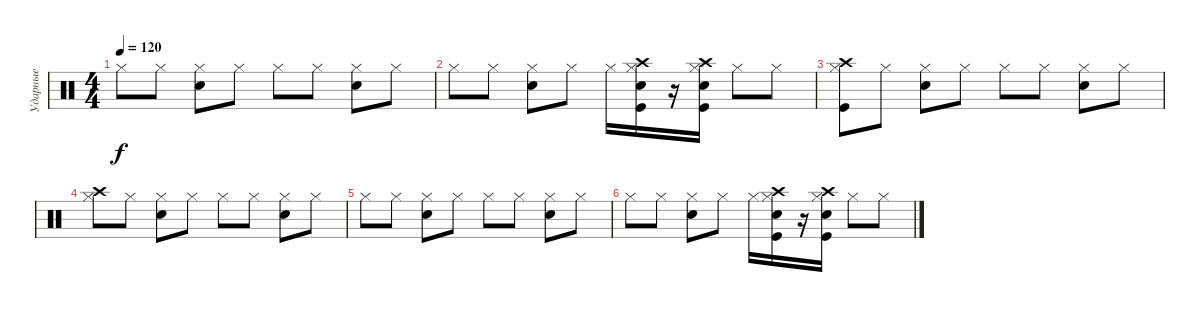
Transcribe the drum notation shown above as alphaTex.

\track ("Ударные" "Ударные") {instrument percussion}
\staff {score}
\articulation defaults
\ts (4 4)
\tempo 120
\clef neutral
\ks c "Hi-Hat (closed)".8{dy f} "Hi-Hat (closed)".8
("Hi-Hat (closed)" "Electric Snare (hit)").8 "Hi-Hat (closed)".8 "Hi-Hat (closed)".8 "Hi-Hat (closed)".8 ("Hi-Hat (closed)" "Electric Snare (hit)").8 "Hi-Hat (closed)".8 |
"Hi-Hat (closed)".8 "Hi-Hat (closed)".8 ("Hi-Hat (closed)" "Electric Snare (hit)").8 "Hi-Hat (closed)".8 "Hi-Hat (closed)".16 ("Hi-Hat (closed)" "Electric Snare (hit)" "Crash high (hit)" "Kick (hit)").16 r.16 ("Hi-Hat (closed)" "Electric Snare (hit)" "Crash high (hit)" "Kick (hit)").16 "Hi-Hat (closed)".8 "Hi-Hat (closed)".8 |
("Hi-Hat (closed)" "Crash high (hit)" "Kick (hit)").8 "Hi-Hat (closed)".8 ("Hi-Hat (closed)" "Electric Snare (hit)").8 "Hi-Hat (closed)".8 "Hi-Hat (closed)".8 "Hi-Hat (closed)".8 ("Hi-Hat (closed)" "Electric Snare (hit)").8 "Hi-Hat (closed)".8 |
("Hi-Hat (closed)" "Crash high (hit)").8 "Hi-Hat (closed)".8 ("Hi-Hat (closed)" "Electric Snare (hit)").8 "Hi-Hat (closed)".8 "Hi-Hat (closed)".8 "Hi-Hat (closed)".8 ("Hi-Hat (closed)" "Electric Snare (hit)").8 "Hi-Hat (closed)".8 |
"Hi-Hat (closed)".8 "Hi-Hat (closed)".8 ("Hi-Hat (closed)" "Electric Snare (hit)").8 "Hi-Hat (closed)".8 "Hi-Hat (closed)".8 "Hi-Hat (closed)".8 ("Hi-Hat (closed)" "Electric Snare (hit)").8 "Hi-Hat (closed)".8 |
"Hi-Hat (closed)".8 "Hi-Hat (closed)".8 ("Hi-Hat (closed)" "Electric Snare (hit)").8 "Hi-Hat (closed)".8 "Hi-Hat (closed)".16 ("Hi-Hat (closed)" "Electric Snare (hit)" "Crash high (hit)" "Kick (hit)").16 r.16 ("Hi-Hat (closed)" "Electric Snare (hit)" "Crash high (hit)" "Kick (hit)").16 "Hi-Hat (closed)".8 "Hi-Hat (closed)".8
